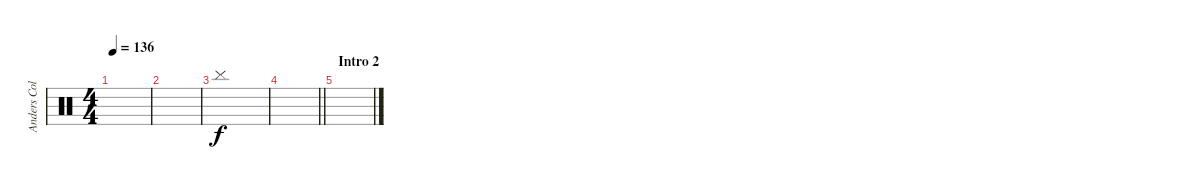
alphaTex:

\track ("Anders Colsefni" "Anders Col") {instrument percussion}
\staff {score}
\articulation defaults
\ts (4 4)
\tempo 136
\clef neutral
\ks c
|
|
"Cymbal (hit)".1 |
\barLineRight lightlight
|
\section ("" "Intro 2")
